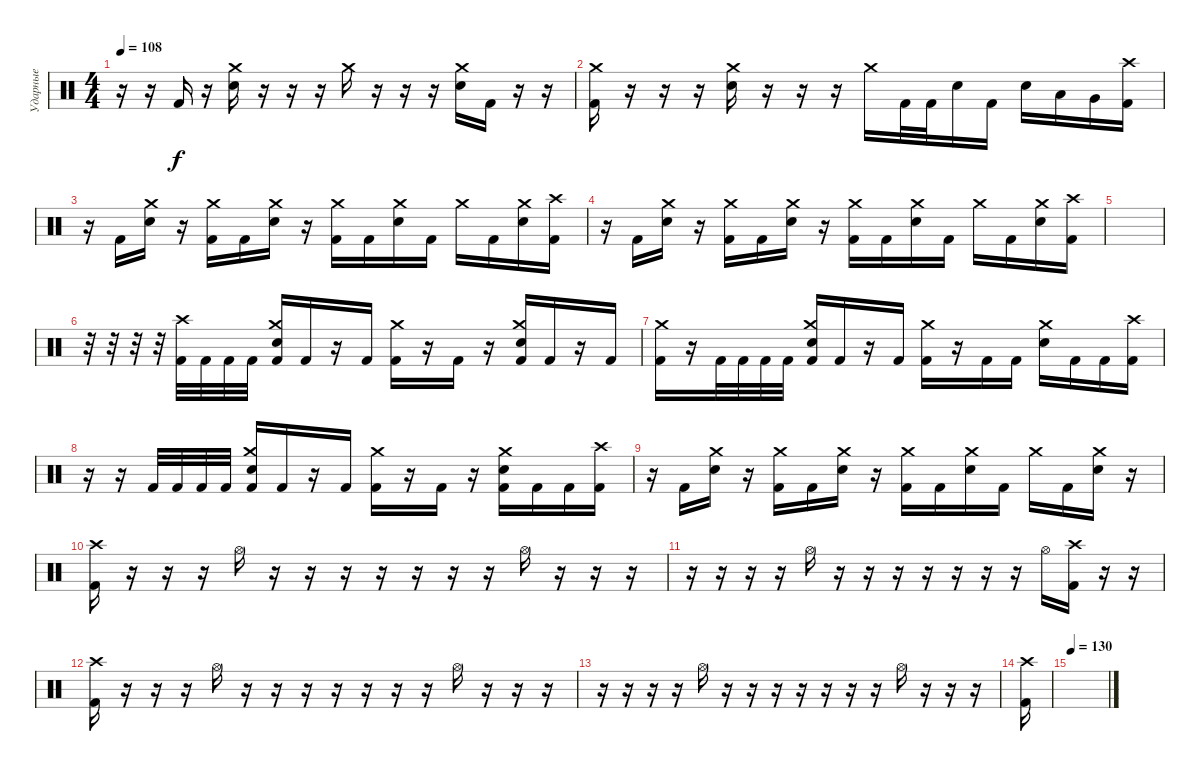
\track ("Ударные" "Ударные") {instrument percussion}
\staff {score}
\articulation defaults
\ts (4 4)
\tempo 108
\clef neutral
\ks c
r.16{dy f} r.16 "Kick (hit) 2".16 r.16 ("Crash medium (hit)" "Electric Snare (hit)").16 r.16 r.16 r.16 "Crash medium (hit)".16 r.16 r.16 r.16 ("Crash medium (hit)" "Electric Snare (hit)").16 "Kick (hit) 2".16 r.16 r.16 |
("Crash medium (hit)" "Kick (hit) 2").16 r.16 r.16 r.16 ("Crash medium (hit)" "Electric Snare (hit)").16 r.16 r.16 r.16 "Crash medium (hit)".16 "Kick (hit) 2".32 "Kick (hit) 2".32 "Electric Snare (hit)".16 "Kick (hit) 2".16 "Electric Snare (hit)".16 "Low Tom (hit)".16 "Very Low Tom (hit)".16 ("Crash high (hit)" "Kick (hit) 2").16 |
r.16 "Kick (hit) 2".16 ("Crash medium (hit)" "Electric Snare (hit)").16 r.16 ("Crash medium (hit)" "Kick (hit) 2").16 "Kick (hit) 2".16 ("Crash medium (hit)" "Electric Snare (hit)").16 r.16 ("Crash medium (hit)" "Kick (hit) 2").16 "Kick (hit) 2".16 ("Crash medium (hit)" "Electric Snare (hit)").16 "Kick (hit) 2".16 "Crash medium (hit)".16 "Kick (hit) 2".16 ("Crash medium (hit)" "Electric Snare (hit)").16 ("Crash high (hit)" "Kick (hit) 2").16 |
r.16 "Kick (hit) 2".16 ("Crash medium (hit)" "Electric Snare (hit)").16 r.16 ("Crash medium (hit)" "Kick (hit) 2").16 "Kick (hit) 2".16 ("Crash medium (hit)" "Electric Snare (hit)").16 r.16 ("Crash medium (hit)" "Kick (hit) 2").16 "Kick (hit) 2".16 ("Crash medium (hit)" "Electric Snare (hit)").16 "Kick (hit) 2".16 "Crash medium (hit)".16 "Kick (hit) 2".16 ("Crash medium (hit)" "Electric Snare (hit)").16 ("Crash high (hit)" "Kick (hit) 2").16 |
|
r.32 r.32 r.32 r.32 ("Crash high (hit)" "Kick (hit) 2").32 "Kick (hit) 2".32 "Kick (hit) 2".32 "Kick (hit) 2".32 ("Crash medium (hit)" "Electric Snare (hit)" "Kick (hit) 2").16 "Kick (hit) 2".16 r.16 "Kick (hit) 2".16 ("Crash medium (hit)" "Kick (hit) 2").16 r.16 "Kick (hit) 2".16 r.16 ("Crash medium (hit)" "Electric Snare (hit)" "Kick (hit) 2").16 "Kick (hit) 2".16 r.16 "Kick (hit) 2".16 |
("Crash medium (hit)" "Kick (hit) 2").16 r.16 "Kick (hit) 2".32 "Kick (hit) 2".32 "Kick (hit) 2".32 "Kick (hit) 2".32 ("Crash medium (hit)" "Electric Snare (hit)" "Kick (hit) 2").16 "Kick (hit) 2".16 r.16 "Kick (hit) 2".16 ("Crash medium (hit)" "Kick (hit) 2").16 r.16 "Kick (hit) 2".16 "Kick (hit) 2".16 ("Crash medium (hit)" "Electric Snare (hit)").16 "Kick (hit) 2".16 "Kick (hit) 2".16 ("Crash high (hit)" "Kick (hit) 2").16 |
r.16 r.16 "Kick (hit) 2".32 "Kick (hit) 2".32 "Kick (hit) 2".32 "Kick (hit) 2".32 ("Crash medium (hit)" "Electric Snare (hit)" "Kick (hit) 2").16 "Kick (hit) 2".16 r.16 "Kick (hit) 2".16 ("Crash medium (hit)" "Kick (hit) 2").16 r.16 "Kick (hit) 2".16 r.16 ("Crash medium (hit)" "Electric Snare (hit)" "Kick (hit) 2").16 "Kick (hit) 2".16 "Kick (hit) 2".16 ("Crash high (hit)" "Kick (hit) 2").16 |
r.16 "Kick (hit) 2".16 ("Crash medium (hit)" "Electric Snare (hit)").16 r.16 ("Crash medium (hit)" "Kick (hit) 2").16 "Kick (hit) 2".16 ("Crash medium (hit)" "Electric Snare (hit)").16 r.16 ("Crash medium (hit)" "Kick (hit) 2").16 "Kick (hit) 2".16 ("Crash medium (hit)" "Electric Snare (hit)").16 "Kick (hit) 2".16 "Crash medium (hit)".16 "Kick (hit) 2".16 ("Crash medium (hit)" "Electric Snare (hit)").16 r.16 |
("Crash high (hit)" "Kick (hit) 2").16 r.16 r.16 r.16 "Hi-Hat (open)".16 r.16 r.16 r.16 r.16 r.16 r.16 r.16 "Hi-Hat (open)".16 r.16 r.16 r.16 |
r.16 r.16 r.16 r.16 "Hi-Hat (open)".16 r.16 r.16 r.16 r.16 r.16 r.16 r.16 "Hi-Hat (open)".16 ("Crash high (hit)" "Kick (hit) 2").16 r.16 r.16 |
("Crash high (hit)" "Kick (hit) 2").16 r.16 r.16 r.16 "Hi-Hat (open)".16 r.16 r.16 r.16 r.16 r.16 r.16 r.16 "Hi-Hat (open)".16 r.16 r.16 r.16 |
r.16 r.16 r.16 r.16 "Hi-Hat (open)".16 r.16 r.16 r.16 r.16 r.16 r.16 r.16 "Hi-Hat (open)".16 r.16 r.16 r.16 |
("Crash high (hit)" "Kick (hit) 2").16 |
\tempo 130
